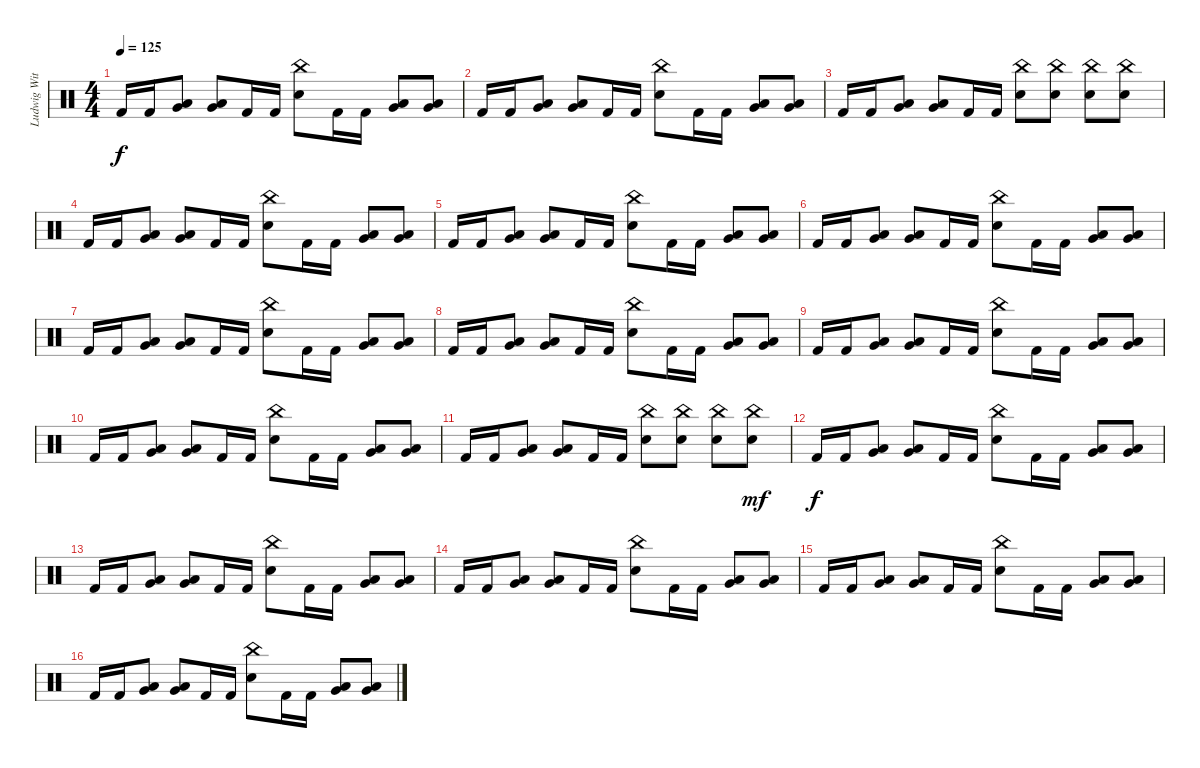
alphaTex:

\track ("Ludwig Witt" "Ludwig Wit") {instrument percussion}
\staff {score}
\articulation defaults
\ts (4 4)
\tempo 125
\clef neutral
\ks c "Kick (hit) 2".16{dy f} "Kick (hit) 2".16
("Low Tom (hit)" "Very Low Tom (hit)").8 ("Very Low Tom (hit)" "Low Floor Tom (hit)").8 "Kick (hit) 2".16 "Kick (hit) 2".16 ("China (hit)" "Electric Snare (hit)").8 "Kick (hit) 2".16 "Kick (hit) 2".16 ("Low Tom (hit)" "Very Low Tom (hit)").8 ("Very Low Tom (hit)" "Low Floor Tom (hit)").8 |
"Kick (hit) 2".16 "Kick (hit) 2".16 ("Low Tom (hit)" "Very Low Tom (hit)").8 ("Very Low Tom (hit)" "Low Floor Tom (hit)").8 "Kick (hit) 2".16 "Kick (hit) 2".16 ("China (hit)" "Electric Snare (hit)").8 "Kick (hit) 2".16 "Kick (hit) 2".16 ("Low Tom (hit)" "Very Low Tom (hit)").8 ("Very Low Tom (hit)" "Low Floor Tom (hit)").8 |
"Kick (hit) 2".16 "Kick (hit) 2".16 ("Low Tom (hit)" "Very Low Tom (hit)").8 ("Very Low Tom (hit)" "Low Floor Tom (hit)").8 "Kick (hit) 2".16 "Kick (hit) 2".16 ("China (hit)" "Electric Snare (hit)").8 ("China (hit)" "Electric Snare (hit)").8 ("China (hit)" "Electric Snare (hit)").8 ("China (hit)" "Electric Snare (hit)").8 |
"Kick (hit) 2".16{volume 16} "Kick (hit) 2".16 ("Low Tom (hit)" "Very Low Tom (hit)").8 ("Very Low Tom (hit)" "Low Floor Tom (hit)").8 "Kick (hit) 2".16 "Kick (hit) 2".16 ("China (hit)" "Electric Snare (hit)").8 "Kick (hit) 2".16 "Kick (hit) 2".16 ("Low Tom (hit)" "Very Low Tom (hit)").8 ("Very Low Tom (hit)" "Low Floor Tom (hit)").8 |
"Kick (hit) 2".16 "Kick (hit) 2".16 ("Low Tom (hit)" "Very Low Tom (hit)").8 ("Very Low Tom (hit)" "Low Floor Tom (hit)").8 "Kick (hit) 2".16 "Kick (hit) 2".16 ("China (hit)" "Electric Snare (hit)").8 "Kick (hit) 2".16 "Kick (hit) 2".16 ("Low Tom (hit)" "Very Low Tom (hit)").8 ("Very Low Tom (hit)" "Low Floor Tom (hit)").8 |
"Kick (hit) 2".16 "Kick (hit) 2".16 ("Low Tom (hit)" "Very Low Tom (hit)").8 ("Very Low Tom (hit)" "Low Floor Tom (hit)").8 "Kick (hit) 2".16 "Kick (hit) 2".16 ("China (hit)" "Electric Snare (hit)").8 "Kick (hit) 2".16 "Kick (hit) 2".16 ("Low Tom (hit)" "Very Low Tom (hit)").8 ("Very Low Tom (hit)" "Low Floor Tom (hit)").8 |
"Kick (hit) 2".16 "Kick (hit) 2".16 ("Low Tom (hit)" "Very Low Tom (hit)").8 ("Very Low Tom (hit)" "Low Floor Tom (hit)").8 "Kick (hit) 2".16 "Kick (hit) 2".16 ("China (hit)" "Electric Snare (hit)").8 "Kick (hit) 2".16 "Kick (hit) 2".16 ("Low Tom (hit)" "Very Low Tom (hit)").8 ("Very Low Tom (hit)" "Low Floor Tom (hit)").8 |
"Kick (hit) 2".16 "Kick (hit) 2".16 ("Low Tom (hit)" "Very Low Tom (hit)").8 ("Very Low Tom (hit)" "Low Floor Tom (hit)").8 "Kick (hit) 2".16 "Kick (hit) 2".16 ("China (hit)" "Electric Snare (hit)").8 "Kick (hit) 2".16 "Kick (hit) 2".16 ("Low Tom (hit)" "Very Low Tom (hit)").8 ("Very Low Tom (hit)" "Low Floor Tom (hit)").8 |
"Kick (hit) 2".16 "Kick (hit) 2".16 ("Low Tom (hit)" "Very Low Tom (hit)").8 ("Very Low Tom (hit)" "Low Floor Tom (hit)").8 "Kick (hit) 2".16 "Kick (hit) 2".16 ("China (hit)" "Electric Snare (hit)").8 "Kick (hit) 2".16 "Kick (hit) 2".16 ("Low Tom (hit)" "Very Low Tom (hit)").8 ("Very Low Tom (hit)" "Low Floor Tom (hit)").8 |
"Kick (hit) 2".16 "Kick (hit) 2".16 ("Low Tom (hit)" "Very Low Tom (hit)").8 ("Very Low Tom (hit)" "Low Floor Tom (hit)").8 "Kick (hit) 2".16 "Kick (hit) 2".16 ("China (hit)" "Electric Snare (hit)").8 "Kick (hit) 2".16 "Kick (hit) 2".16 ("Low Tom (hit)" "Very Low Tom (hit)").8 ("Very Low Tom (hit)" "Low Floor Tom (hit)").8 |
"Kick (hit) 2".16 "Kick (hit) 2".16 ("Low Tom (hit)" "Very Low Tom (hit)").8 ("Very Low Tom (hit)" "Low Floor Tom (hit)").8 "Kick (hit) 2".16 "Kick (hit) 2".16 ("China (hit)" "Electric Snare (hit)").8 ("China (hit)" "Electric Snare (hit)").8 ("China (hit)" "Electric Snare (hit)").8 ("China (hit)" "Electric Snare (hit)").8{dy mf} |
"Kick (hit) 2".16{dy f} "Kick (hit) 2".16 ("Low Tom (hit)" "Very Low Tom (hit)").8 ("Very Low Tom (hit)" "Low Floor Tom (hit)").8 "Kick (hit) 2".16 "Kick (hit) 2".16 ("China (hit)" "Electric Snare (hit)").8 "Kick (hit) 2".16 "Kick (hit) 2".16 ("Low Tom (hit)" "Very Low Tom (hit)").8 ("Very Low Tom (hit)" "Low Floor Tom (hit)").8 |
"Kick (hit) 2".16 "Kick (hit) 2".16 ("Low Tom (hit)" "Very Low Tom (hit)").8 ("Very Low Tom (hit)" "Low Floor Tom (hit)").8 "Kick (hit) 2".16 "Kick (hit) 2".16 ("China (hit)" "Electric Snare (hit)").8 "Kick (hit) 2".16 "Kick (hit) 2".16 ("Low Tom (hit)" "Very Low Tom (hit)").8 ("Very Low Tom (hit)" "Low Floor Tom (hit)").8 |
"Kick (hit) 2".16 "Kick (hit) 2".16 ("Low Tom (hit)" "Very Low Tom (hit)").8 ("Very Low Tom (hit)" "Low Floor Tom (hit)").8 "Kick (hit) 2".16 "Kick (hit) 2".16 ("China (hit)" "Electric Snare (hit)").8 "Kick (hit) 2".16 "Kick (hit) 2".16 ("Low Tom (hit)" "Very Low Tom (hit)").8 ("Very Low Tom (hit)" "Low Floor Tom (hit)").8 |
"Kick (hit) 2".16 "Kick (hit) 2".16 ("Low Tom (hit)" "Very Low Tom (hit)").8 ("Very Low Tom (hit)" "Low Floor Tom (hit)").8 "Kick (hit) 2".16 "Kick (hit) 2".16 ("China (hit)" "Electric Snare (hit)").8 "Kick (hit) 2".16 "Kick (hit) 2".16 ("Low Tom (hit)" "Very Low Tom (hit)").8 ("Very Low Tom (hit)" "Low Floor Tom (hit)").8 |
"Kick (hit) 2".16 "Kick (hit) 2".16 ("Low Tom (hit)" "Very Low Tom (hit)").8 ("Very Low Tom (hit)" "Low Floor Tom (hit)").8 "Kick (hit) 2".16 "Kick (hit) 2".16 ("China (hit)" "Electric Snare (hit)").8 "Kick (hit) 2".16 "Kick (hit) 2".16 ("Low Tom (hit)" "Very Low Tom (hit)").8 ("Very Low Tom (hit)" "Low Floor Tom (hit)").8
